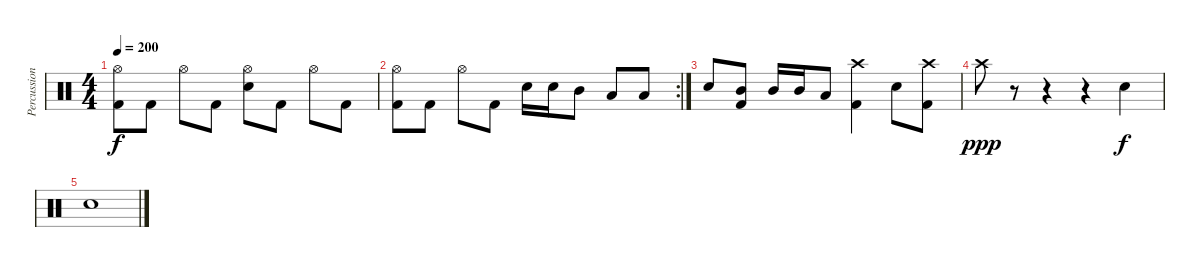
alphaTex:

\track ("Percussions" "Percussion") {instrument percussion}
\staff {score}
\articulation defaults
\ts (4 4)
\tempo 200
\clef neutral
\ks c
("Hi-Hat (open)" "Kick (hit) 2").8{dy f} "Kick (hit) 2".8 "Hi-Hat (open)".8 "Kick (hit) 2".8 ("Hi-Hat (open)" "Snare (hit) 2").8 "Kick (hit) 2".8 "Hi-Hat (open)".8 "Kick (hit) 2".8 |
\rc 2
("Hi-Hat (open)" "Kick (hit) 2").8 "Kick (hit) 2".8 "Hi-Hat (open)".8 "Kick (hit) 2".8 "Snare (hit) 2".16 "Snare (hit) 2".16 "Mid Tom (hit)".8 "Low Tom (hit)".8 "Low Floor Tom (hit)".8 |
"Snare (hit) 2".8 ("Mid Tom (hit)" "Kick (hit) 2").8 "Mid Tom (hit)".16 "Mid Tom (hit)".16 "Low Tom (hit)".8 ("Crash high (hit)" "Kick (hit) 2").4 "Snare (hit) 2".8 ("Crash high (hit)" "Kick (hit) 2").8 |
"Crash high (hit)".8{dy ppp} r.8 r.4 r.4 "Snare (hit)".4{dy f} |
"Snare (hit)".1
